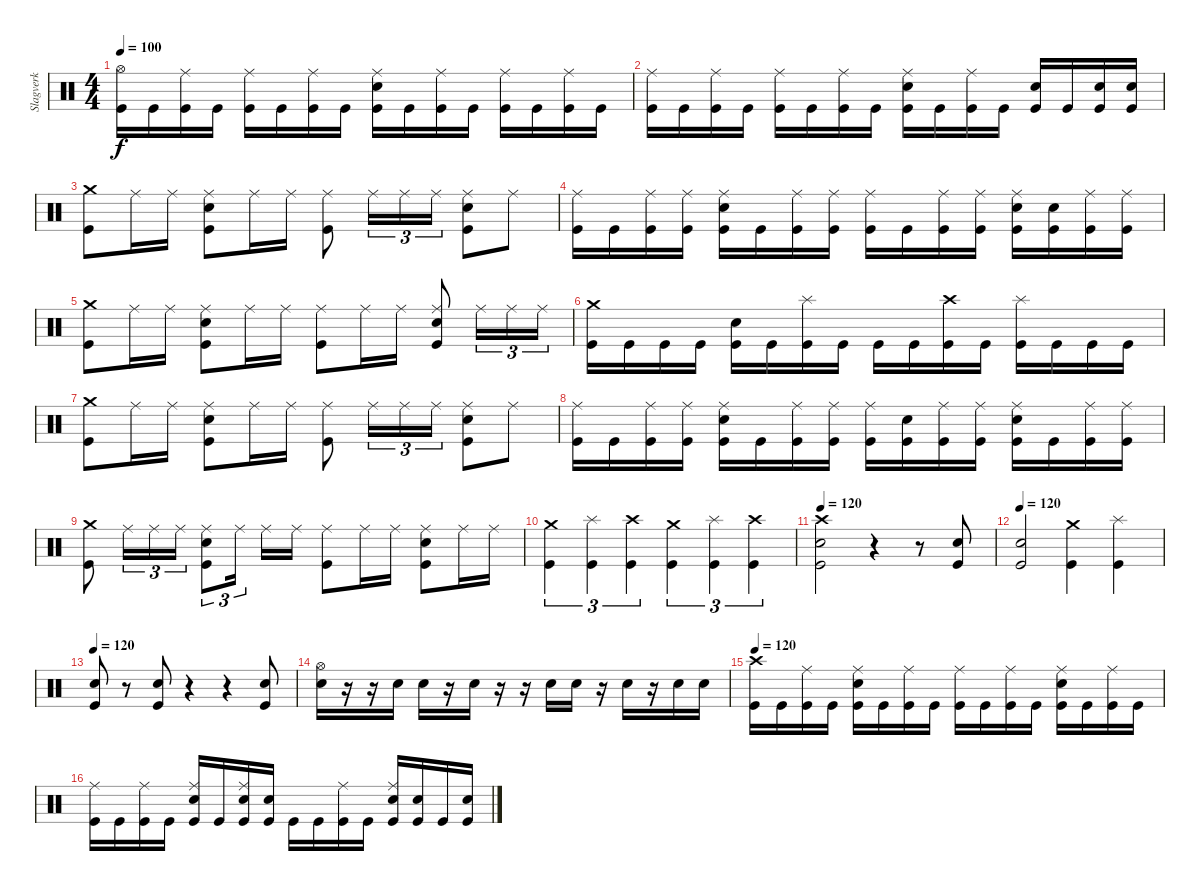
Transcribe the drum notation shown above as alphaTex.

\track ("Slagverk" "Slagverk") {instrument percussion}
\staff {score}
\articulation defaults
\ts (4 4)
\tempo 100
\clef neutral
\ks c
("Hi-Hat (open)" "Kick (hit)").16{dy f} "Kick (hit)".16 ("Ride (middle)" "Kick (hit)").16 "Kick (hit)".16 ("Ride (middle)" "Kick (hit)").16 "Kick (hit)".16 ("Ride (middle)" "Kick (hit)").16 "Kick (hit)".16 ("Ride (middle)" "Electric Snare (hit)" "Kick (hit)").16 "Kick (hit)".16 ("Ride (middle)" "Kick (hit)").16 "Kick (hit)".16 ("Ride (middle)" "Kick (hit)").16 "Kick (hit)".16 ("Ride (middle)" "Kick (hit)").16 "Kick (hit)".16 |
("Ride (middle)" "Kick (hit)").16 "Kick (hit)".16 ("Ride (middle)" "Kick (hit)").16 "Kick (hit)".16 ("Ride (middle)" "Kick (hit)").16 "Kick (hit)".16 ("Ride (middle)" "Kick (hit)").16 "Kick (hit)".16 ("Ride (middle)" "Electric Snare (hit)" "Kick (hit)").16 "Kick (hit)".16 ("Ride (middle)" "Kick (hit)").16 "Kick (hit)".16 ("Electric Snare (hit)" "Kick (hit)").16 "Kick (hit)".16 ("Electric Snare (hit)" "Kick (hit)").16 ("Electric Snare (hit)" "Kick (hit)").16 |
("Crash medium (hit)" "Kick (hit)").8 "Ride (middle)".16 "Ride (middle)".16 ("Ride (middle)" "Electric Snare (hit)" "Kick (hit)").8 "Ride (middle)".16 "Ride (middle)".16 ("Ride (middle)" "Kick (hit)").8 "Ride (middle)".16{tu (3 2)} "Ride (middle)".16{tu (3 2)} "Ride (middle)".16{tu (3 2)} ("Ride (middle)" "Electric Snare (hit)" "Kick (hit)").8 "Ride (middle)".8 |
("Ride (middle)" "Kick (hit)").16 "Kick (hit)".16 ("Ride (middle)" "Kick (hit)").16 ("Ride (middle)" "Kick (hit)").16 ("Ride (middle)" "Electric Snare (hit)" "Kick (hit)").16 "Kick (hit)".16 ("Ride (middle)" "Kick (hit)").16 ("Ride (middle)" "Kick (hit)").16 ("Ride (middle)" "Kick (hit)").16 "Kick (hit)".16 ("Ride (middle)" "Kick (hit)").16 ("Ride (middle)" "Kick (hit)").16 ("Ride (middle)" "Electric Snare (hit)" "Kick (hit)").16 ("Electric Snare (hit)" "Kick (hit)").16 ("Ride (middle)" "Kick (hit)").16 ("Ride (middle)" "Kick (hit)").16 |
("Crash medium (hit)" "Kick (hit)").8 "Ride (middle)".16 "Ride (middle)".16 ("Ride (middle)" "Electric Snare (hit)" "Kick (hit)").8 "Ride (middle)".16 "Ride (middle)".16 ("Ride (middle)" "Kick (hit)").8 "Ride (middle)".16 "Ride (middle)".16 ("Ride (middle)" "Electric Snare (hit)" "Kick (hit)").8 "Ride (middle)".16{tu (3 2)} "Ride (middle)".16{tu (3 2)} "Ride (middle)".16{tu (3 2)} |
("Crash medium (hit)" "Kick (hit)").16 "Kick (hit)".16 "Kick (hit)".16 "Kick (hit)".16 ("Electric Snare (hit)" "Kick (hit)").16 "Kick (hit)".16 ("Splash (hit)" "Kick (hit)").16 "Kick (hit)".16 "Kick (hit)".16 "Kick (hit)".16 ("Crash high (hit)" "Kick (hit)").16 "Kick (hit)".16 ("Splash (hit)" "Kick (hit)").16 "Kick (hit)".16 "Kick (hit)".16 "Kick (hit)".16 |
("Crash medium (hit)" "Kick (hit)").8 "Ride (middle)".16 "Ride (middle)".16 ("Ride (middle)" "Electric Snare (hit)" "Kick (hit)").8 "Ride (middle)".16 "Ride (middle)".16 ("Ride (middle)" "Kick (hit)").8 "Ride (middle)".16{tu (3 2)} "Ride (middle)".16{tu (3 2)} "Ride (middle)".16{tu (3 2)} ("Ride (middle)" "Electric Snare (hit)" "Kick (hit)").8 "Ride (middle)".8 |
("Ride (middle)" "Kick (hit)").16 "Kick (hit)".16 ("Ride (middle)" "Kick (hit)").16 ("Ride (middle)" "Kick (hit)").16 ("Ride (middle)" "Electric Snare (hit)" "Kick (hit)").16 "Kick (hit)".16 ("Ride (middle)" "Kick (hit)").16 ("Ride (middle)" "Kick (hit)").16 ("Ride (middle)" "Kick (hit)").16 ("Electric Snare (hit)" "Kick (hit)").16 ("Ride (middle)" "Kick (hit)").16 ("Ride (middle)" "Kick (hit)").16 ("Ride (middle)" "Electric Snare (hit)" "Kick (hit)").16 "Kick (hit)".16 ("Ride (middle)" "Kick (hit)").16 ("Ride (middle)" "Kick (hit)").16 |
("Crash medium (hit)" "Kick (hit)").8 "Ride (middle)".16{tu (3 2)} "Ride (middle)".16{tu (3 2)} "Ride (middle)".16{tu (3 2)} ("Ride (middle)" "Electric Snare (hit)" "Kick (hit)").8{tu (3 2)} "Ride (middle)".16{tu (3 2)} "Ride (middle)".16 "Ride (middle)".16 ("Ride (middle)" "Kick (hit)").8 "Ride (middle)".16 "Ride (middle)".16 ("Ride (middle)" "Electric Snare (hit)" "Kick (hit)").8 "Ride (middle)".16 "Ride (middle)".16 |
("Crash medium (hit)" "Kick (hit)").4{tu (3 2)} ("Splash (hit)" "Kick (hit)").4{tu (3 2)} ("Crash high (hit)" "Kick (hit)").4{tu (3 2)} ("Crash medium (hit)" "Kick (hit)").4{tu (3 2)} ("Splash (hit)" "Kick (hit)").4{tu (3 2)} ("Crash high (hit)" "Kick (hit)").4{tu (3 2)} |
\tempo 120
("Crash high (hit)" "Electric Snare (hit)" "Kick (hit)").2 r.4 r.8 ("Electric Snare (hit)" "Kick (hit)").8 |
\tempo 120
("Electric Snare (hit)" "Kick (hit)").2 ("Crash medium (hit)" "Kick (hit)").4 ("Splash (hit)" "Kick (hit)").4 |
\tempo 120
("Electric Snare (hit)" "Kick (hit)").8 r.8 ("Electric Snare (hit)" "Kick (hit)").8 r.4 r.4 ("Electric Snare (hit)" "Kick (hit)").8 |
("Electric Snare (hit)" "Hi-Hat (open)").16 r.16 r.16 "Electric Snare (hit)".16 "Electric Snare (hit)".16 r.16 "Electric Snare (hit)".16 r.16 r.16 "Electric Snare (hit)".16 "Electric Snare (hit)".16 r.16 "Electric Snare (hit)".16 r.16 "Electric Snare (hit)".16 "Electric Snare (hit)".16 |
\tempo 120
("Crash high (hit)" "Kick (hit)").16 "Kick (hit)".16 ("Ride (middle)" "Kick (hit)").16 "Kick (hit)".16 ("Ride (middle)" "Electric Snare (hit)" "Kick (hit)").16 "Kick (hit)".16 ("Ride (middle)" "Kick (hit)").16 "Kick (hit)".16 ("Ride (middle)" "Kick (hit)").16 "Kick (hit)".16 ("Ride (middle)" "Kick (hit)").16 "Kick (hit)".16 ("Ride (middle)" "Electric Snare (hit)" "Kick (hit)").16 "Kick (hit)".16 ("Ride (middle)" "Kick (hit)").16 "Kick (hit)".16 |
("Ride (middle)" "Kick (hit)").16 "Kick (hit)".16 ("Ride (middle)" "Kick (hit)").16 "Kick (hit)".16 ("Ride (middle)" "Electric Snare (hit)" "Kick (hit)").16 "Kick (hit)".16 ("Ride (middle)" "Electric Snare (hit)" "Kick (hit)").16 ("Electric Snare (hit)" "Kick (hit)").16 "Kick (hit)".16 "Kick (hit)".16 ("Ride (middle)" "Kick (hit)").16 "Kick (hit)".16 ("Ride (middle)" "Electric Snare (hit)" "Kick (hit)").16 ("Electric Snare (hit)" "Kick (hit)").16 "Kick (hit)".16 ("Electric Snare (hit)" "Kick (hit)").16
